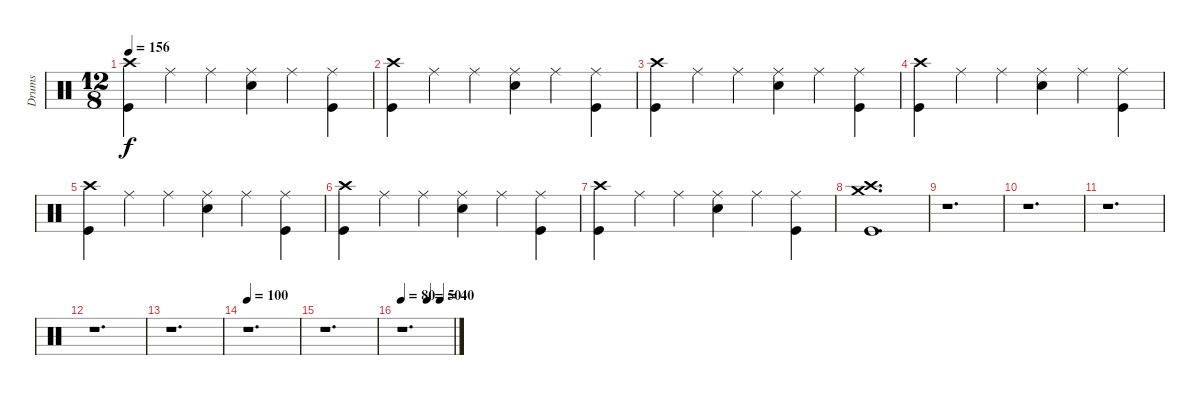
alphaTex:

\track ("Drums" "Drums") {instrument percussion}
\staff {score}
\articulation defaults
\ts (12 8)
\tempo 156
\clef neutral
\ks c
("Crash high (hit)" "Kick (hit)").4{dy f} "Ride (middle)".4 "Ride (middle)".4 ("Ride (middle)" "Electric Snare (hit)").4 "Ride (middle)".4 ("Ride (middle)" "Kick (hit)").4 |
("Crash high (hit)" "Kick (hit)").4 "Ride (middle)".4 "Ride (middle)".4 ("Ride (middle)" "Electric Snare (hit)").4 "Ride (middle)".4 ("Ride (middle)" "Kick (hit)").4 |
("Crash high (hit)" "Kick (hit)").4 "Ride (middle)".4 "Ride (middle)".4 ("Ride (middle)" "Electric Snare (hit)").4 "Ride (middle)".4 ("Ride (middle)" "Kick (hit)").4 |
("Crash high (hit)" "Kick (hit)").4 "Ride (middle)".4 "Ride (middle)".4 ("Ride (middle)" "Electric Snare (hit)").4 "Ride (middle)".4 ("Ride (middle)" "Kick (hit)").4 |
("Crash high (hit)" "Kick (hit)").4 "Ride (middle)".4 "Ride (middle)".4 ("Ride (middle)" "Electric Snare (hit)").4 "Ride (middle)".4 ("Ride (middle)" "Kick (hit)").4 |
("Crash high (hit)" "Kick (hit)").4 "Ride (middle)".4 "Ride (middle)".4 ("Ride (middle)" "Electric Snare (hit)").4 "Ride (middle)".4 ("Ride (middle)" "Kick (hit)").4 |
("Crash high (hit)" "Kick (hit)").4 "Ride (middle)".4 "Ride (middle)".4 ("Ride (middle)" "Electric Snare (hit)").4 "Ride (middle)".4 ("Ride (middle)" "Kick (hit)").4 |
("Crash high (hit)" "Crash medium (hit)" "Kick (hit)").1{d} |
r.1{d} |
r.1{d} |
r.1{d} |
r.1{d} |
r.1{d} |
\tempo 100
r.1{d} |
r.1{d} |
\tempo 80
\tempo (50 0.5)
\tempo (40 0.75)
r.1{d}
